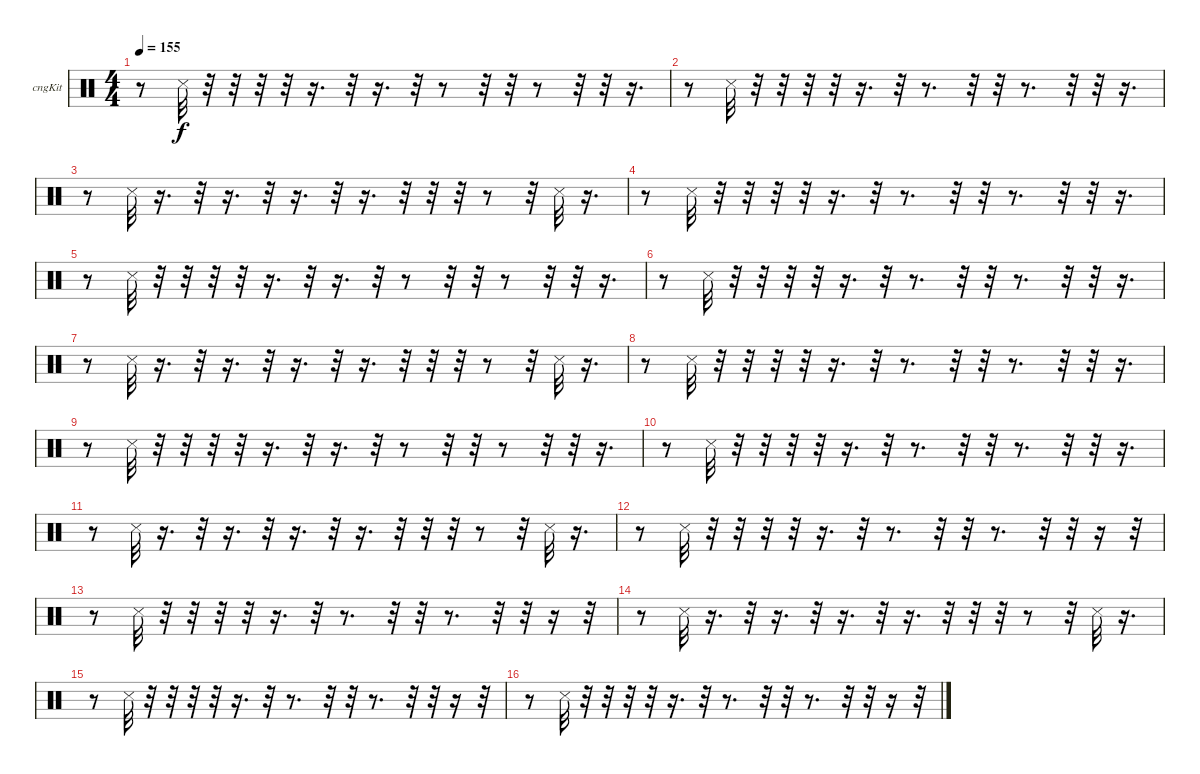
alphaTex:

\bracketExtendMode groupsimilarinstruments
\firstSystemTrackNameOrientation horizontal
\otherSystemsTrackNameOrientation horizontal
\track ("Е. Кулаков" "cngKit") {instrument percussion}
\staff {score}
\articulation defaults
\ts (4 4)
\tempo 155
\clef neutral
\ks c
r.8{dy f} "Snare (side stick) 3".32 r.32 r.32 r.32 r.32 r.16{d} r.32 r.16{d} r.32 r.8 r.32 r.32 r.8 r.32 r.32 r.16{d} |
r.8 "Snare (side stick) 3".32 r.32 r.32 r.32 r.32 r.16{d} r.32 r.8{d} r.32 r.32 r.8{d} r.32 r.32 r.16{d} |
r.8 "Snare (side stick) 3".32 r.16{d} r.32 r.16{d} r.32 r.16{d} r.32 r.16{d} r.32 r.32 r.32 r.8 r.32 "Snare (side stick) 3".32 r.16{d} |
r.8 "Snare (side stick) 3".32 r.32 r.32 r.32 r.32 r.16{d} r.32 r.8{d} r.32 r.32 r.8{d} r.32 r.32 r.16{d} |
r.8 "Snare (side stick) 3".32 r.32 r.32 r.32 r.32 r.16{d} r.32 r.16{d} r.32 r.8 r.32 r.32 r.8 r.32 r.32 r.16{d} |
r.8 "Snare (side stick) 3".32 r.32 r.32 r.32 r.32 r.16{d} r.32 r.8{d} r.32 r.32 r.8{d} r.32 r.32 r.16{d} |
r.8 "Snare (side stick) 3".32 r.16{d} r.32 r.16{d} r.32 r.16{d} r.32 r.16{d} r.32 r.32 r.32 r.8 r.32 "Snare (side stick) 3".32 r.16{d} |
r.8 "Snare (side stick) 3".32 r.32 r.32 r.32 r.32 r.16{d} r.32 r.8{d} r.32 r.32 r.8{d} r.32 r.32 r.16{d} |
r.8 "Snare (side stick) 3".32 r.32 r.32 r.32 r.32 r.16{d} r.32 r.16{d} r.32 r.8 r.32 r.32 r.8 r.32 r.32 r.16{d} |
r.8 "Snare (side stick) 3".32 r.32 r.32 r.32 r.32 r.16{d} r.32 r.8{d} r.32 r.32 r.8{d} r.32 r.32 r.16{d} |
r.8 "Snare (side stick) 3".32 r.16{d} r.32 r.16{d} r.32 r.16{d} r.32 r.16{d} r.32 r.32 r.32 r.8 r.32 "Snare (side stick) 3".32 r.16{d} |
r.8 "Snare (side stick) 3".32 r.32 r.32 r.32 r.32 r.16{d} r.32 r.8{d} r.32 r.32 r.8{d} r.32 r.32 r.16 r.32 |
r.8 "Snare (side stick) 3".32 r.32 r.32 r.32 r.32 r.16{d} r.32 r.8{d} r.32 r.32 r.8{d} r.32 r.32 r.16 r.32 |
r.8 "Snare (side stick) 3".32 r.16{d} r.32 r.16{d} r.32 r.16{d} r.32 r.16{d} r.32 r.32 r.32 r.8 r.32 "Snare (side stick) 3".32 r.16{d} |
r.8 "Snare (side stick) 3".32 r.32 r.32 r.32 r.32 r.16{d} r.32 r.8{d} r.32 r.32 r.8{d} r.32 r.32 r.16 r.32 |
r.8 "Snare (side stick) 3".32 r.32 r.32 r.32 r.32 r.16{d} r.32 r.8{d} r.32 r.32 r.8{d} r.32 r.32 r.16 r.32
